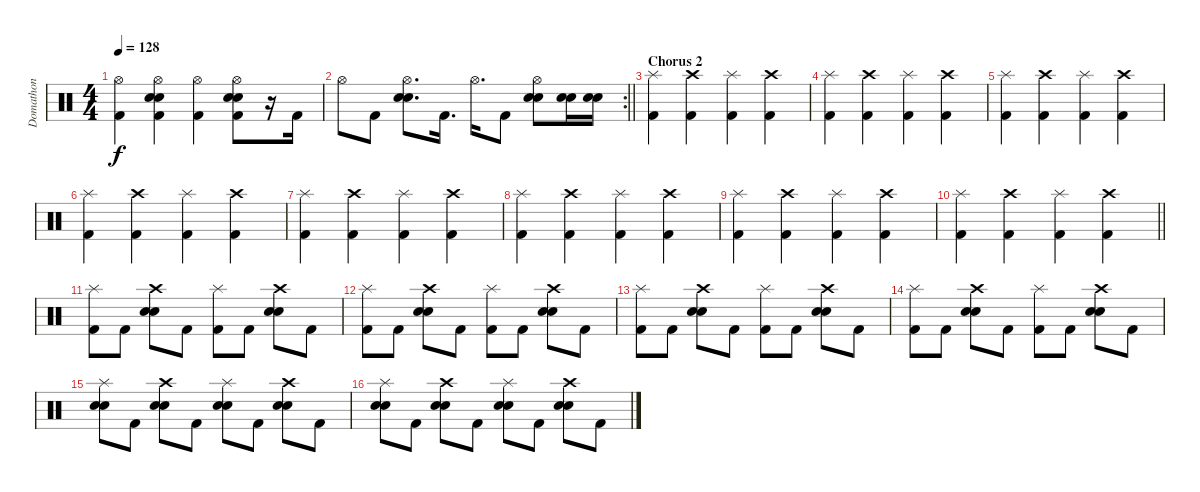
\track ("Domathon" "Domathon") {instrument percussion}
\staff {score}
\articulation defaults
\ts (4 4)
\tempo 128
\clef neutral
\ks c
("Hi-Hat (open)" "Kick (hit) 2").4{dy f} ("Hi-Hat (open)" "Snare (hit) 2" "Electric Snare (hit)" "Kick (hit) 2").4 ("Hi-Hat (open)" "Kick (hit) 2").4 ("Hi-Hat (open)" "Snare (hit) 2" "Electric Snare (hit)" "Kick (hit) 2").8 r.16 "Kick (hit) 2".16 |
\rc 2
\barLineRight lightlight "Hi-Hat (open)".8 "Kick (hit) 2".8
("Hi-Hat (open)" "Snare (hit) 2" "Electric Snare (hit)").8{d} "Kick (hit) 2".16{d} "Hi-Hat (open)".16{d} "Kick (hit) 2".8 ("Hi-Hat (open)" "Snare (hit) 2" "Electric Snare (hit)").8 ("Snare (hit) 2" "Electric Snare (hit)").16 ("Snare (hit) 2" "Electric Snare (hit)").16 |
\section ("" "Chorus 2")
("Splash (hit)" "Kick (hit) 2").4 ("Crash high (hit)" "Kick (hit) 2").4 ("Splash (hit)" "Kick (hit) 2").4 ("Crash high (hit)" "Kick (hit) 2").4 |
("Splash (hit)" "Kick (hit) 2").4 ("Crash high (hit)" "Kick (hit) 2").4 ("Splash (hit)" "Kick (hit) 2").4 ("Crash high (hit)" "Kick (hit) 2").4 |
("Splash (hit)" "Kick (hit) 2").4 ("Crash high (hit)" "Kick (hit) 2").4 ("Splash (hit)" "Kick (hit) 2").4 ("Crash high (hit)" "Kick (hit) 2").4 |
("Splash (hit)" "Kick (hit) 2").4 ("Crash high (hit)" "Kick (hit) 2").4 ("Splash (hit)" "Kick (hit) 2").4 ("Crash high (hit)" "Kick (hit) 2").4 |
("Splash (hit)" "Kick (hit) 2").4 ("Crash high (hit)" "Kick (hit) 2").4 ("Splash (hit)" "Kick (hit) 2").4 ("Crash high (hit)" "Kick (hit) 2").4 |
("Splash (hit)" "Kick (hit) 2").4 ("Crash high (hit)" "Kick (hit) 2").4 ("Splash (hit)" "Kick (hit) 2").4 ("Crash high (hit)" "Kick (hit) 2").4 |
("Splash (hit)" "Kick (hit) 2").4 ("Crash high (hit)" "Kick (hit) 2").4 ("Splash (hit)" "Kick (hit) 2").4 ("Crash high (hit)" "Kick (hit) 2").4 |
\barLineRight lightlight
("Splash (hit)" "Kick (hit) 2").4 ("Crash high (hit)" "Kick (hit) 2").4 ("Splash (hit)" "Kick (hit) 2").4 ("Crash high (hit)" "Kick (hit) 2").4 |
("Splash (hit)" "Kick (hit) 2").8 "Kick (hit) 2".8 ("Crash high (hit)" "Snare (hit) 2" "Electric Snare (hit)").8 "Kick (hit) 2".8 ("Splash (hit)" "Kick (hit) 2").8 "Kick (hit) 2".8 ("Crash high (hit)" "Snare (hit) 2" "Electric Snare (hit)").8 "Kick (hit) 2".8 |
("Splash (hit)" "Kick (hit) 2").8 "Kick (hit) 2".8 ("Crash high (hit)" "Snare (hit) 2" "Electric Snare (hit)").8 "Kick (hit) 2".8 ("Splash (hit)" "Kick (hit) 2").8 "Kick (hit) 2".8 ("Crash high (hit)" "Snare (hit) 2" "Electric Snare (hit)").8 "Kick (hit) 2".8 |
("Splash (hit)" "Kick (hit) 2").8 "Kick (hit) 2".8 ("Crash high (hit)" "Snare (hit) 2" "Electric Snare (hit)").8 "Kick (hit) 2".8 ("Splash (hit)" "Kick (hit) 2").8 "Kick (hit) 2".8 ("Crash high (hit)" "Snare (hit) 2" "Electric Snare (hit)").8 "Kick (hit) 2".8 |
("Splash (hit)" "Kick (hit) 2").8 "Kick (hit) 2".8 ("Crash high (hit)" "Snare (hit) 2" "Electric Snare (hit)").8 "Kick (hit) 2".8 ("Splash (hit)" "Kick (hit) 2").8 "Kick (hit) 2".8 ("Crash high (hit)" "Snare (hit) 2" "Electric Snare (hit)").8 "Kick (hit) 2".8 |
("Splash (hit)" "Snare (hit) 2" "Electric Snare (hit)").8 "Kick (hit) 2".8 ("Crash high (hit)" "Snare (hit) 2" "Electric Snare (hit)").8 "Kick (hit) 2".8 ("Splash (hit)" "Snare (hit) 2" "Electric Snare (hit)").8 "Kick (hit) 2".8 ("Crash high (hit)" "Snare (hit) 2" "Electric Snare (hit)").8 "Kick (hit) 2".8 |
("Splash (hit)" "Snare (hit) 2" "Electric Snare (hit)").8 "Kick (hit) 2".8 ("Crash high (hit)" "Snare (hit) 2" "Electric Snare (hit)").8 "Kick (hit) 2".8 ("Splash (hit)" "Snare (hit) 2" "Electric Snare (hit)").8 "Kick (hit) 2".8 ("Crash high (hit)" "Snare (hit) 2" "Electric Snare (hit)").8 "Kick (hit) 2".8
